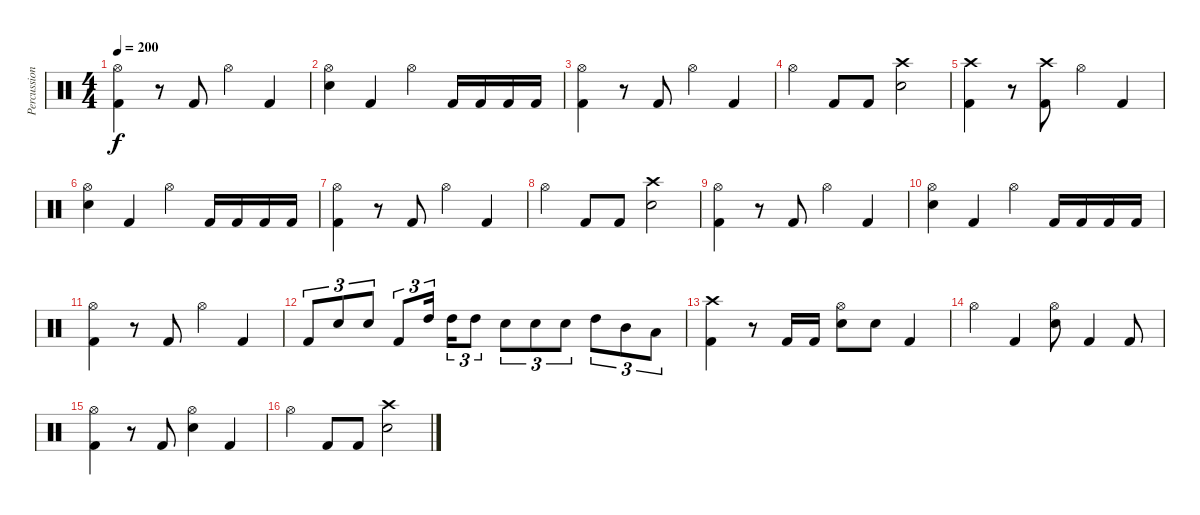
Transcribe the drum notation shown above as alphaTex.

\track ("Percussion" "Percussion") {instrument percussion}
\staff {score}
\articulation defaults
\ts (4 4)
\tempo 200
\clef neutral
\ks c
("Hi-Hat (open)" "Kick (hit) 2").4{dy f} r.8 "Kick (hit) 2".8 "Hi-Hat (open)".4 "Kick (hit) 2".4 |
("Hi-Hat (open)" "Snare (hit) 2").4 "Kick (hit) 2".4 "Hi-Hat (open)".4 "Kick (hit) 2".16 "Kick (hit) 2".16 "Kick (hit) 2".16 "Kick (hit) 2".16 |
("Hi-Hat (open)" "Kick (hit) 2").4 r.8 "Kick (hit) 2".8 "Hi-Hat (open)".4 "Kick (hit) 2".4 |
"Hi-Hat (open)".4 "Kick (hit) 2".8 "Kick (hit) 2".8 ("Crash high (hit)" "Snare (hit) 2").2 |
("Crash high (hit)" "Kick (hit) 2").4 r.8 ("Crash high (hit)" "Kick (hit) 2").8 "Hi-Hat (open)".4 "Kick (hit) 2".4 |
("Hi-Hat (open)" "Snare (hit) 2").4 "Kick (hit) 2".4 "Hi-Hat (open)".4 "Kick (hit) 2".16 "Kick (hit) 2".16 "Kick (hit) 2".16 "Kick (hit) 2".16 |
("Hi-Hat (open)" "Kick (hit) 2").4 r.8 "Kick (hit) 2".8 "Hi-Hat (open)".4 "Kick (hit) 2".4 |
"Hi-Hat (open)".4 "Kick (hit) 2".8 "Kick (hit) 2".8 ("Crash high (hit)" "Snare (hit) 2").2 |
("Hi-Hat (open)" "Kick (hit) 2").4 r.8 "Kick (hit) 2".8 "Hi-Hat (open)".4 "Kick (hit) 2".4 |
("Hi-Hat (open)" "Snare (hit) 2").4 "Kick (hit) 2".4 "Hi-Hat (open)".4 "Kick (hit) 2".16 "Kick (hit) 2".16 "Kick (hit) 2".16 "Kick (hit) 2".16 |
("Hi-Hat (open)" "Kick (hit) 2").4 r.8 "Kick (hit) 2".8 "Hi-Hat (open)".4 "Kick (hit) 2".4 |
"Kick (hit) 2".8{tu (3 2)} "Snare (hit) 2".8{tu (3 2)} "Snare (hit) 2".8{tu (3 2)} "Kick (hit) 2".8{tu (3 2)} "High Tom (hit)".16{tu (3 2) beam splitsecondary} "High Tom (hit)".16{tu (3 2)} "High Tom (hit)".8{tu (3 2)} "Snare (hit) 2".8{tu (3 2)} "Snare (hit) 2".8{tu (3 2)} "Snare (hit) 2".8{tu (3 2)} "High Tom (hit)".8{tu (3 2)} "Mid Tom (hit)".8{tu (3 2)} "Low Tom (hit)".8{tu (3 2)} |
("Crash high (hit)" "Kick (hit) 2").4 r.8 "Kick (hit) 2".16 "Kick (hit) 2".16 ("Hi-Hat (open)" "Snare (hit) 2").8 "Snare (hit) 2".8 "Kick (hit) 2".4 |
"Hi-Hat (open)".4 "Kick (hit) 2".4 ("Hi-Hat (open)" "Snare (hit) 2").8 "Kick (hit) 2".4 "Kick (hit) 2".8 |
("Hi-Hat (open)" "Kick (hit) 2").4 r.8 "Kick (hit) 2".8 ("Hi-Hat (open)" "Snare (hit) 2").4 "Kick (hit) 2".4 |
"Hi-Hat (open)".4 "Kick (hit) 2".8 "Kick (hit) 2".8 ("Crash high (hit)" "Snare (hit) 2").2
